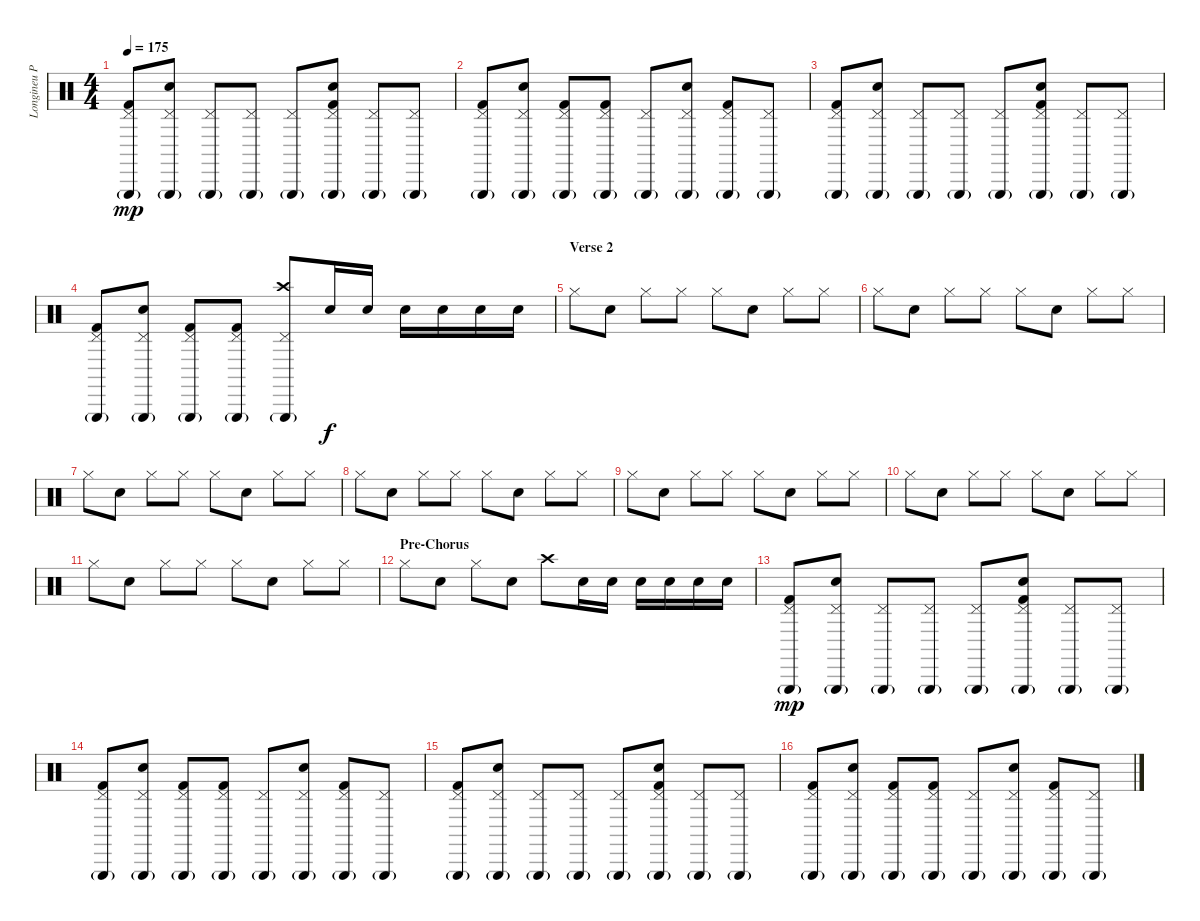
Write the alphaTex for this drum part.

\track ("Longineu Parsons III Drums" "Longineu P") {instrument percussion}
\staff {score}
\articulation defaults
\ts (4 4)
\tempo 175
\clef neutral
\ks c
("Triangle (hit)"{g} "Pedal Hi-Hat (hit)" "Kick (hit) 2").8{dy mp} ("Triangle (hit)"{g} "Pedal Hi-Hat (hit)" "Electric Snare (hit)").8 ("Triangle (hit)"{g} "Pedal Hi-Hat (hit)").8 ("Triangle (hit)"{g} "Pedal Hi-Hat (hit)").8 ("Triangle (hit)"{g} "Pedal Hi-Hat (hit)").8 ("Triangle (hit)"{g} "Pedal Hi-Hat (hit)" "Electric Snare (hit)" "Kick (hit) 2").8 ("Triangle (hit)"{g} "Pedal Hi-Hat (hit)").8 ("Triangle (hit)"{g} "Pedal Hi-Hat (hit)").8 |
("Triangle (hit)"{g} "Pedal Hi-Hat (hit)" "Kick (hit) 2").8 ("Triangle (hit)"{g} "Pedal Hi-Hat (hit)" "Electric Snare (hit)").8 ("Triangle (hit)"{g} "Pedal Hi-Hat (hit)" "Kick (hit) 2").8 ("Triangle (hit)"{g} "Pedal Hi-Hat (hit)" "Kick (hit) 2").8 ("Triangle (hit)"{g} "Pedal Hi-Hat (hit)").8 ("Triangle (hit)"{g} "Pedal Hi-Hat (hit)" "Electric Snare (hit)").8 ("Triangle (hit)"{g} "Pedal Hi-Hat (hit)" "Kick (hit) 2").8 ("Triangle (hit)"{g} "Pedal Hi-Hat (hit)").8 |
("Triangle (hit)"{g} "Pedal Hi-Hat (hit)" "Kick (hit) 2").8 ("Triangle (hit)"{g} "Pedal Hi-Hat (hit)" "Electric Snare (hit)").8 ("Triangle (hit)"{g} "Pedal Hi-Hat (hit)").8 ("Triangle (hit)"{g} "Pedal Hi-Hat (hit)").8 ("Triangle (hit)"{g} "Pedal Hi-Hat (hit)").8 ("Triangle (hit)"{g} "Pedal Hi-Hat (hit)" "Electric Snare (hit)" "Kick (hit) 2").8 ("Triangle (hit)"{g} "Pedal Hi-Hat (hit)").8 ("Triangle (hit)"{g} "Pedal Hi-Hat (hit)").8 |
("Triangle (hit)"{g} "Pedal Hi-Hat (hit)" "Kick (hit) 2").8 ("Triangle (hit)"{g} "Pedal Hi-Hat (hit)" "Electric Snare (hit)").8 ("Triangle (hit)"{g} "Pedal Hi-Hat (hit)" "Kick (hit) 2").8 ("Triangle (hit)"{g} "Pedal Hi-Hat (hit)" "Kick (hit) 2").8 ("Triangle (hit)"{g} "Pedal Hi-Hat (hit)" "Crash high (hit)").8 "Snare (hit) 2".16{dy f} "Snare (hit) 2".16 "Snare (hit) 2".16 "Snare (hit) 2".16 "Snare (hit) 2".16 "Snare (hit) 2".16 |
\section ("" "Verse 2")
"Hi-Hat (closed)".8 "Snare (hit) 2".8 "Hi-Hat (closed)".8 "Hi-Hat (closed)".8 "Hi-Hat (closed)".8 "Snare (hit) 2".8 "Hi-Hat (closed)".8 "Hi-Hat (closed)".8 |
"Hi-Hat (closed)".8 "Snare (hit) 2".8 "Hi-Hat (closed)".8 "Hi-Hat (closed)".8 "Hi-Hat (closed)".8 "Snare (hit) 2".8 "Hi-Hat (closed)".8 "Hi-Hat (closed)".8 |
"Hi-Hat (closed)".8 "Snare (hit) 2".8 "Hi-Hat (closed)".8 "Hi-Hat (closed)".8 "Hi-Hat (closed)".8 "Snare (hit) 2".8 "Hi-Hat (closed)".8 "Hi-Hat (closed)".8 |
"Hi-Hat (closed)".8 "Snare (hit) 2".8 "Hi-Hat (closed)".8 "Hi-Hat (closed)".8 "Hi-Hat (closed)".8 "Snare (hit) 2".8 "Hi-Hat (closed)".8 "Hi-Hat (closed)".8 |
"Hi-Hat (closed)".8 "Snare (hit) 2".8 "Hi-Hat (closed)".8 "Hi-Hat (closed)".8 "Hi-Hat (closed)".8 "Snare (hit) 2".8 "Hi-Hat (closed)".8 "Hi-Hat (closed)".8 |
"Hi-Hat (closed)".8 "Snare (hit) 2".8 "Hi-Hat (closed)".8 "Hi-Hat (closed)".8 "Hi-Hat (closed)".8 "Snare (hit) 2".8 "Hi-Hat (closed)".8 "Hi-Hat (closed)".8 |
"Hi-Hat (closed)".8 "Snare (hit) 2".8 "Hi-Hat (closed)".8 "Hi-Hat (closed)".8 "Hi-Hat (closed)".8 "Snare (hit) 2".8 "Hi-Hat (closed)".8 "Hi-Hat (closed)".8 |
\section ("" "Pre-Chorus")
"Hi-Hat (closed)".8 "Snare (hit) 2".8 "Hi-Hat (closed)".8 "Snare (hit) 2".8 "Crash high (hit)".8 "Snare (hit) 2".16 "Snare (hit) 2".16 "Snare (hit) 2".16 "Snare (hit) 2".16 "Snare (hit) 2".16 "Snare (hit) 2".16 |
("Triangle (hit)"{g} "Pedal Hi-Hat (hit)" "Kick (hit) 2").8{dy mp} ("Triangle (hit)"{g} "Pedal Hi-Hat (hit)" "Electric Snare (hit)").8 ("Triangle (hit)"{g} "Pedal Hi-Hat (hit)").8 ("Triangle (hit)"{g} "Pedal Hi-Hat (hit)").8 ("Triangle (hit)"{g} "Pedal Hi-Hat (hit)").8 ("Triangle (hit)"{g} "Pedal Hi-Hat (hit)" "Electric Snare (hit)" "Kick (hit) 2").8 ("Triangle (hit)"{g} "Pedal Hi-Hat (hit)").8 ("Triangle (hit)"{g} "Pedal Hi-Hat (hit)").8 |
("Triangle (hit)"{g} "Pedal Hi-Hat (hit)" "Kick (hit) 2").8 ("Triangle (hit)"{g} "Pedal Hi-Hat (hit)" "Electric Snare (hit)").8 ("Triangle (hit)"{g} "Pedal Hi-Hat (hit)" "Kick (hit) 2").8 ("Triangle (hit)"{g} "Pedal Hi-Hat (hit)" "Kick (hit) 2").8 ("Triangle (hit)"{g} "Pedal Hi-Hat (hit)").8 ("Triangle (hit)"{g} "Pedal Hi-Hat (hit)" "Electric Snare (hit)").8 ("Triangle (hit)"{g} "Pedal Hi-Hat (hit)" "Kick (hit) 2").8 ("Triangle (hit)"{g} "Pedal Hi-Hat (hit)").8 |
("Triangle (hit)"{g} "Pedal Hi-Hat (hit)" "Kick (hit) 2").8 ("Triangle (hit)"{g} "Pedal Hi-Hat (hit)" "Electric Snare (hit)").8 ("Triangle (hit)"{g} "Pedal Hi-Hat (hit)").8 ("Triangle (hit)"{g} "Pedal Hi-Hat (hit)").8 ("Triangle (hit)"{g} "Pedal Hi-Hat (hit)").8 ("Triangle (hit)"{g} "Pedal Hi-Hat (hit)" "Electric Snare (hit)" "Kick (hit) 2").8 ("Triangle (hit)"{g} "Pedal Hi-Hat (hit)").8 ("Triangle (hit)"{g} "Pedal Hi-Hat (hit)").8 |
("Triangle (hit)"{g} "Pedal Hi-Hat (hit)" "Kick (hit) 2").8 ("Triangle (hit)"{g} "Pedal Hi-Hat (hit)" "Electric Snare (hit)").8 ("Triangle (hit)"{g} "Pedal Hi-Hat (hit)" "Kick (hit) 2").8 ("Triangle (hit)"{g} "Pedal Hi-Hat (hit)" "Kick (hit) 2").8 ("Triangle (hit)"{g} "Pedal Hi-Hat (hit)").8 ("Triangle (hit)"{g} "Pedal Hi-Hat (hit)" "Electric Snare (hit)").8 ("Triangle (hit)"{g} "Pedal Hi-Hat (hit)" "Kick (hit) 2").8 ("Triangle (hit)"{g} "Pedal Hi-Hat (hit)").8
